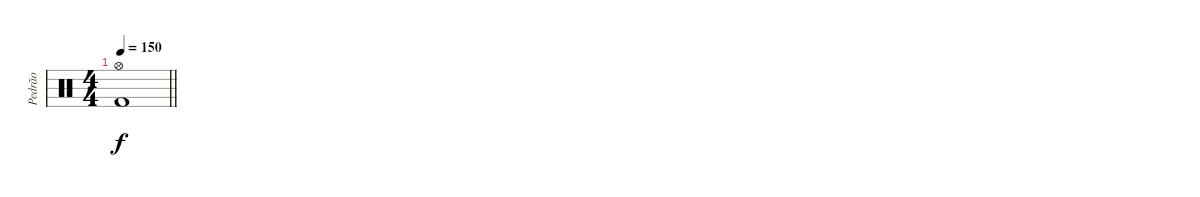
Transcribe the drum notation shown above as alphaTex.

\track ("Pedrão" "Pedrão") {instrument percussion}
\staff {score}
\articulation defaults
\ts (4 4)
\tempo 150
\clef neutral
\barLineRight lightlight
\ks c
("Hi-Hat (open)" "Kick (hit) 2").1{dy f}
